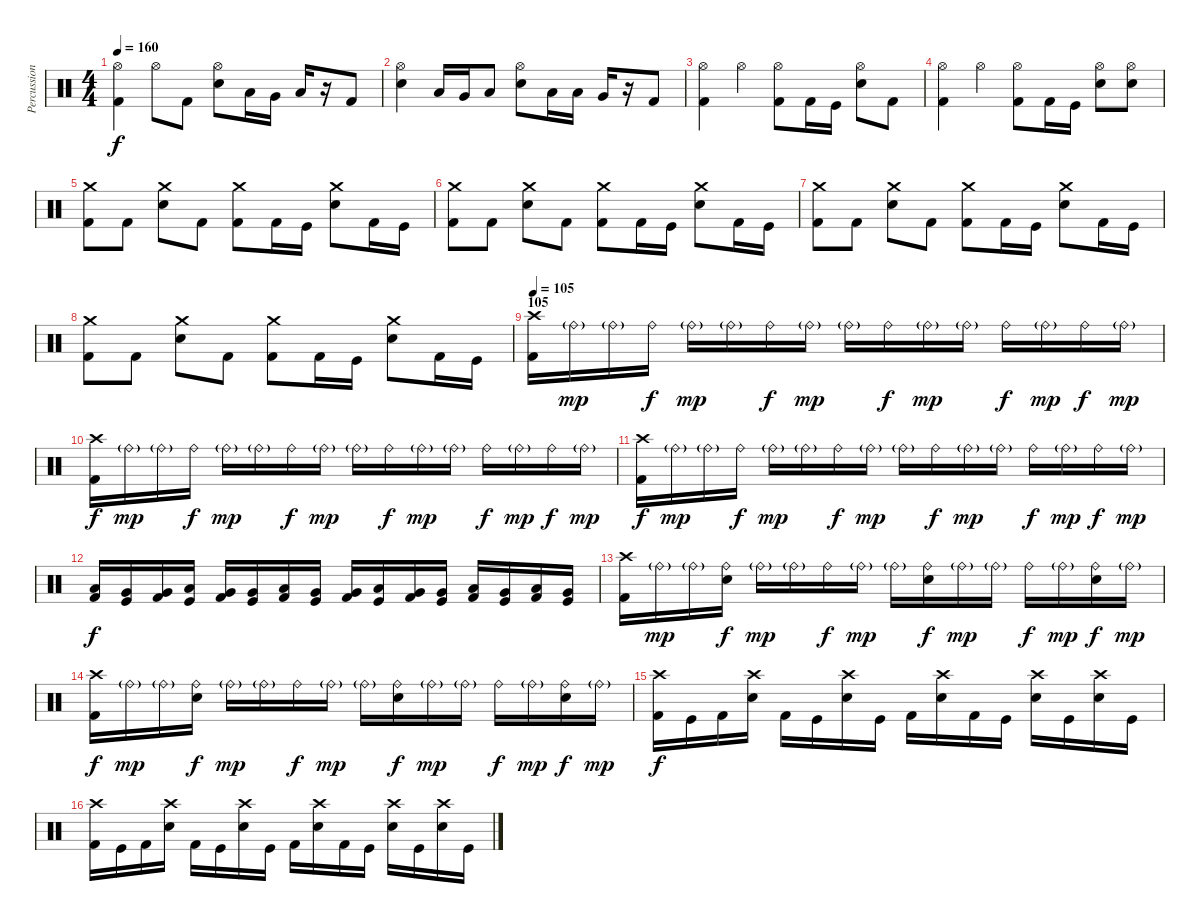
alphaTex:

\track ("Percussion" "Percussion") {instrument percussion}
\staff {score}
\articulation defaults
\ts (4 4)
\tempo 160
\clef neutral
\ks c
("Kick (hit) 2" "Hi-Hat (open)").4{dy f} "Hi-Hat (open)".8 "Kick (hit) 2".8 ("Snare (hit) 2" "Hi-Hat (open)").8 "Low Tom (hit)".16 "Very Low Tom (hit)".16 "Low Floor Tom (hit)".16 r.16 "Kick (hit) 2".8 |
("Snare (hit) 2" "Hi-Hat (open)").4 "Low Tom (hit)".16 "Very Low Tom (hit)".16 "Low Floor Tom (hit)".8 ("Snare (hit) 2" "Hi-Hat (open)").8 "Low Tom (hit)".16 "Low Tom (hit)".16 "Very Low Tom (hit)".16 r.16 "Kick (hit) 2".8 |
("Kick (hit) 2" "Hi-Hat (open)").4 "Hi-Hat (open)".4 ("Kick (hit) 2" "Hi-Hat (open)").8 "Kick (hit) 2".16 "Kick (hit)".16 ("Snare (hit) 2" "Hi-Hat (open)").8 "Kick (hit) 2".8 |
("Kick (hit) 2" "Hi-Hat (open)").4 "Hi-Hat (open)".4 ("Kick (hit) 2" "Hi-Hat (open)").8 "Kick (hit) 2".16 "Kick (hit)".16 ("Snare (hit) 2" "Hi-Hat (open)").8 ("Snare (hit) 2" "Hi-Hat (open)").8 |
("Kick (hit) 2" "Crash medium (hit)").8 "Kick (hit) 2".8 ("Snare (hit) 2" "Crash medium (hit)").8 "Kick (hit) 2".8 ("Kick (hit) 2" "Crash medium (hit)").8 "Kick (hit) 2".16 "Kick (hit)".16 ("Snare (hit) 2" "Crash medium (hit)").8 "Kick (hit) 2".16 "Kick (hit)".16 |
("Kick (hit) 2" "Crash medium (hit)").8 "Kick (hit) 2".8 ("Snare (hit) 2" "Crash medium (hit)").8 "Kick (hit) 2".8 ("Kick (hit) 2" "Crash medium (hit)").8 "Kick (hit) 2".16 "Kick (hit)".16 ("Snare (hit) 2" "Crash medium (hit)").8 "Kick (hit) 2".16 "Kick (hit)".16 |
("Kick (hit) 2" "Crash medium (hit)").8 "Kick (hit) 2".8 ("Snare (hit) 2" "Crash medium (hit)").8 "Kick (hit) 2".8 ("Kick (hit) 2" "Crash medium (hit)").8 "Kick (hit) 2".16 "Kick (hit)".16 ("Snare (hit) 2" "Crash medium (hit)").8 "Kick (hit) 2".16 "Kick (hit)".16 |
("Kick (hit) 2" "Crash medium (hit)").8 "Kick (hit) 2".8 ("Snare (hit) 2" "Crash medium (hit)").8 "Kick (hit) 2".8 ("Kick (hit) 2" "Crash medium (hit)").8 "Kick (hit) 2".16 "Kick (hit)".16 ("Snare (hit) 2" "Crash medium (hit)").8 "Kick (hit) 2".16 "Kick (hit)".16 |
\section ("" "105")
\tempo 105
("Kick (hit) 2" "Crash high (hit)").16 "Ride (bell)"{g}.16{dy mp} "Ride (bell)"{g}.16 "Ride (bell)".16{dy f} "Ride (bell)"{g}.16{dy mp} "Ride (bell)"{g}.16 "Ride (bell)".16{dy f} "Ride (bell)"{g}.16{dy mp} "Ride (bell)"{g}.16 "Ride (bell)".16{dy f} "Ride (bell)"{g}.16{dy mp} "Ride (bell)"{g}.16 "Ride (bell)".16{dy f} "Ride (bell)"{g}.16{dy mp} "Ride (bell)".16{dy f} "Ride (bell)"{g}.16{dy mp} |
("Kick (hit) 2" "Crash high (hit)").16{dy f} "Ride (bell)"{g}.16{dy mp} "Ride (bell)"{g}.16 "Ride (bell)".16{dy f} "Ride (bell)"{g}.16{dy mp} "Ride (bell)"{g}.16 "Ride (bell)".16{dy f} "Ride (bell)"{g}.16{dy mp} "Ride (bell)"{g}.16 "Ride (bell)".16{dy f} "Ride (bell)"{g}.16{dy mp} "Ride (bell)"{g}.16 "Ride (bell)".16{dy f} "Ride (bell)"{g}.16{dy mp} "Ride (bell)".16{dy f} "Ride (bell)"{g}.16{dy mp} |
("Kick (hit) 2" "Crash high (hit)").16{dy f} "Ride (bell)"{g}.16{dy mp} "Ride (bell)"{g}.16 "Ride (bell)".16{dy f} "Ride (bell)"{g}.16{dy mp} "Ride (bell)"{g}.16 "Ride (bell)".16{dy f} "Ride (bell)"{g}.16{dy mp} "Ride (bell)"{g}.16 "Ride (bell)".16{dy f} "Ride (bell)"{g}.16{dy mp} "Ride (bell)"{g}.16 "Ride (bell)".16{dy f} "Ride (bell)"{g}.16{dy mp} "Ride (bell)".16{dy f} "Ride (bell)"{g}.16{dy mp} |
("Low Tom (hit)" "Kick (hit) 2").16{dy f} ("Very Low Tom (hit)" "Kick (hit)").16 ("Very Low Tom (hit)" "Kick (hit) 2").16 ("Low Tom (hit)" "Kick (hit)").16 ("Very Low Tom (hit)" "Kick (hit) 2").16 ("Very Low Tom (hit)" "Kick (hit)").16 ("Low Tom (hit)" "Kick (hit) 2").16 ("Very Low Tom (hit)" "Kick (hit)").16 ("Very Low Tom (hit)" "Kick (hit) 2").16 ("Low Tom (hit)" "Kick (hit)").16 ("Very Low Tom (hit)" "Kick (hit) 2").16 ("Very Low Tom (hit)" "Kick (hit)").16 ("Low Tom (hit)" "Kick (hit) 2").16 ("Very Low Tom (hit)" "Kick (hit)").16 ("Low Tom (hit)" "Kick (hit) 2").16 ("Very Low Tom (hit)" "Kick (hit)").16 |
("Kick (hit) 2" "Crash high (hit)").16 "Ride (bell)"{g}.16{dy mp} "Ride (bell)"{g}.16 ("Ride (bell)" "Snare (hit) 2").16{dy f} "Ride (bell)"{g}.16{dy mp} "Ride (bell)"{g}.16 "Ride (bell)".16{dy f} "Ride (bell)"{g}.16{dy mp} "Ride (bell)"{g}.16 ("Ride (bell)" "Snare (hit) 2").16{dy f} "Ride (bell)"{g}.16{dy mp} "Ride (bell)"{g}.16 "Ride (bell)".16{dy f} "Ride (bell)"{g}.16{dy mp} ("Ride (bell)" "Snare (hit) 2").16{dy f} "Ride (bell)"{g}.16{dy mp} |
("Kick (hit) 2" "Crash high (hit)").16{dy f} "Ride (bell)"{g}.16{dy mp} "Ride (bell)"{g}.16 ("Ride (bell)" "Snare (hit) 2").16{dy f} "Ride (bell)"{g}.16{dy mp} "Ride (bell)"{g}.16 "Ride (bell)".16{dy f} "Ride (bell)"{g}.16{dy mp} "Ride (bell)"{g}.16 ("Ride (bell)" "Snare (hit) 2").16{dy f} "Ride (bell)"{g}.16{dy mp} "Ride (bell)"{g}.16 "Ride (bell)".16{dy f} "Ride (bell)"{g}.16{dy mp} ("Ride (bell)" "Snare (hit) 2").16{dy f} "Ride (bell)"{g}.16{dy mp} |
("Kick (hit) 2" "Crash high (hit)").16{dy f} "Kick (hit)".16 "Kick (hit) 2".16 ("Snare (hit) 2" "Crash high (hit)").16 "Kick (hit) 2".16 "Kick (hit)".16 ("Snare (hit) 2" "Crash high (hit)").16 "Kick (hit)".16 "Kick (hit) 2".16 ("Snare (hit) 2" "Crash high (hit)").16 "Kick (hit) 2".16 "Kick (hit)".16 ("Snare (hit) 2" "Crash high (hit)").16 "Kick (hit)".16 ("Snare (hit) 2" "Crash high (hit)").16 "Kick (hit)".16 |
("Kick (hit) 2" "Crash high (hit)").16 "Kick (hit)".16 "Kick (hit) 2".16 ("Snare (hit) 2" "Crash high (hit)").16 "Kick (hit) 2".16 "Kick (hit)".16 ("Snare (hit) 2" "Crash high (hit)").16 "Kick (hit)".16 "Kick (hit) 2".16 ("Snare (hit) 2" "Crash high (hit)").16 "Kick (hit) 2".16 "Kick (hit)".16 ("Snare (hit) 2" "Crash high (hit)").16 "Kick (hit)".16 ("Snare (hit) 2" "Crash high (hit)").16 "Kick (hit)".16
